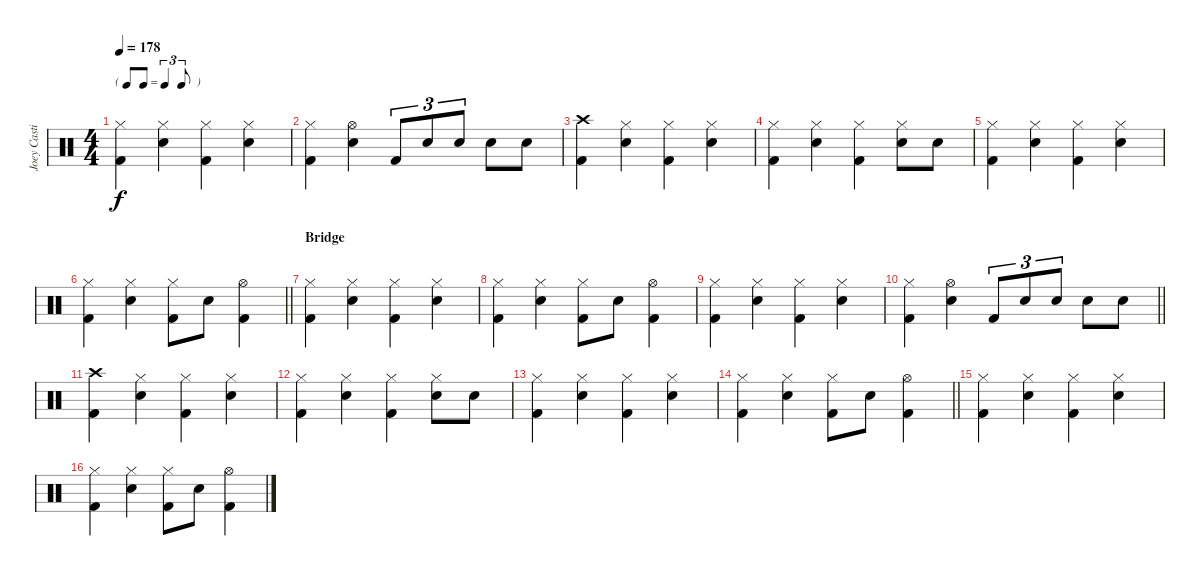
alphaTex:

\track ("Joey Castillo" "Joey Casti") {instrument percussion}
\staff {score}
\articulation defaults
\ts (4 4)
\tf triplet8th
\tempo 178
\clef neutral
\ks c
("Hi-Hat (closed)" "Kick (hit) 2").4{dy f} ("Hi-Hat (closed)" "Snare (hit) 2").4 ("Hi-Hat (closed)" "Kick (hit) 2").4 ("Hi-Hat (closed)" "Snare (hit) 2").4 |
("Hi-Hat (closed)" "Kick (hit) 2").4 ("Hi-Hat (open)" "Snare (hit) 2").4 "Kick (hit) 2".8{tu (3 2)} "Snare (hit) 2".8{tu (3 2)} "Snare (hit) 2".8{tu (3 2)} "Snare (hit) 2".8 "Snare (hit) 2".8 |
("Crash high (hit)" "Kick (hit) 2").4 ("Hi-Hat (closed)" "Snare (hit) 2").4 ("Hi-Hat (closed)" "Kick (hit) 2").4 ("Hi-Hat (closed)" "Snare (hit) 2").4 |
("Hi-Hat (closed)" "Kick (hit) 2").4 ("Hi-Hat (closed)" "Snare (hit) 2").4 ("Hi-Hat (closed)" "Kick (hit) 2").4 ("Hi-Hat (closed)" "Snare (hit) 2").8 "Snare (hit) 2".8 |
("Hi-Hat (closed)" "Kick (hit) 2").4 ("Hi-Hat (closed)" "Snare (hit) 2").4 ("Hi-Hat (closed)" "Kick (hit) 2").4 ("Hi-Hat (closed)" "Snare (hit) 2").4 |
\barLineRight lightlight
("Hi-Hat (closed)" "Kick (hit) 2").4 ("Hi-Hat (closed)" "Snare (hit) 2").4 ("Hi-Hat (closed)" "Kick (hit) 2").8 "Snare (hit) 2".8 ("Hi-Hat (open)" "Kick (hit) 2").4 |
\section ("" "Bridge")
("Hi-Hat (closed)" "Kick (hit) 2").4 ("Hi-Hat (closed)" "Snare (hit) 2").4 ("Hi-Hat (closed)" "Kick (hit) 2").4 ("Hi-Hat (closed)" "Snare (hit) 2").4 |
("Hi-Hat (closed)" "Kick (hit) 2").4 ("Hi-Hat (closed)" "Snare (hit) 2").4 ("Hi-Hat (closed)" "Kick (hit) 2").8 "Snare (hit) 2".8 ("Hi-Hat (open)" "Kick (hit) 2").4 |
("Hi-Hat (closed)" "Kick (hit) 2").4 ("Hi-Hat (closed)" "Snare (hit) 2").4 ("Hi-Hat (closed)" "Kick (hit) 2").4 ("Hi-Hat (closed)" "Snare (hit) 2").4 |
\barLineRight lightlight
("Hi-Hat (closed)" "Kick (hit) 2").4 ("Hi-Hat (open)" "Snare (hit) 2").4 "Kick (hit) 2".8{tu (3 2)} "Snare (hit) 2".8{tu (3 2)} "Snare (hit) 2".8{tu (3 2)} "Snare (hit) 2".8 "Snare (hit) 2".8 |
("Crash high (hit)" "Kick (hit) 2").4 ("Hi-Hat (closed)" "Snare (hit) 2").4 ("Hi-Hat (closed)" "Kick (hit) 2").4 ("Hi-Hat (closed)" "Snare (hit) 2").4 |
("Hi-Hat (closed)" "Kick (hit) 2").4 ("Hi-Hat (closed)" "Snare (hit) 2").4 ("Hi-Hat (closed)" "Kick (hit) 2").4 ("Hi-Hat (closed)" "Snare (hit) 2").8 "Snare (hit) 2".8 |
("Hi-Hat (closed)" "Kick (hit) 2").4 ("Hi-Hat (closed)" "Snare (hit) 2").4 ("Hi-Hat (closed)" "Kick (hit) 2").4 ("Hi-Hat (closed)" "Snare (hit) 2").4 |
\barLineRight lightlight
("Hi-Hat (closed)" "Kick (hit) 2").4 ("Hi-Hat (closed)" "Snare (hit) 2").4 ("Hi-Hat (closed)" "Kick (hit) 2").8 "Snare (hit) 2".8 ("Hi-Hat (open)" "Kick (hit) 2").4 |
("Hi-Hat (closed)" "Kick (hit) 2").4 ("Hi-Hat (closed)" "Snare (hit) 2").4 ("Hi-Hat (closed)" "Kick (hit) 2").4 ("Hi-Hat (closed)" "Snare (hit) 2").4 |
("Hi-Hat (closed)" "Kick (hit) 2").4 ("Hi-Hat (closed)" "Snare (hit) 2").4 ("Hi-Hat (closed)" "Kick (hit) 2").8 "Snare (hit) 2".8 ("Hi-Hat (open)" "Kick (hit) 2").4
